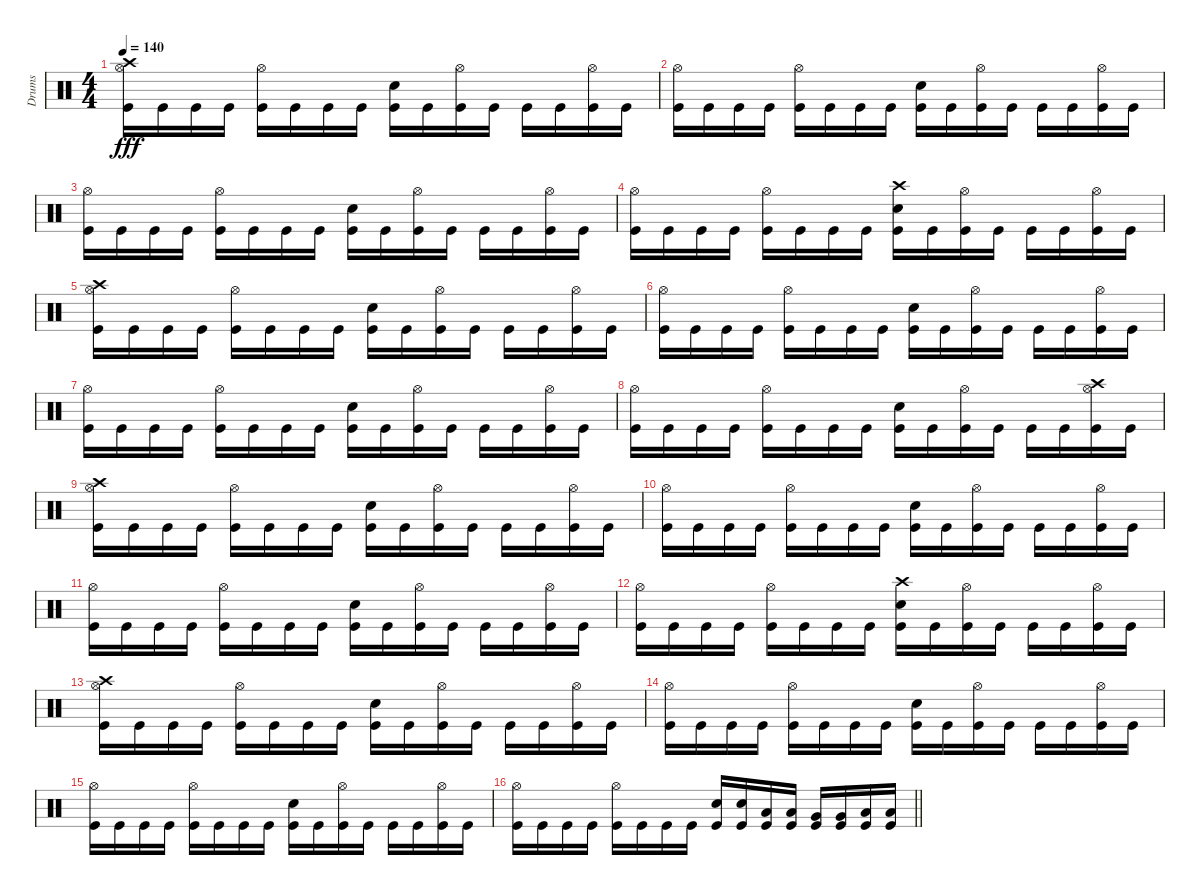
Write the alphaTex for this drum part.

\track ("Drums" "Drums") {instrument percussion}
\staff {score}
\articulation defaults
\ts (4 4)
\tempo 140
\clef neutral
\ks c
("Kick (hit)" "Hi-Hat (open)" "Crash high (hit)").16{dy fff} "Kick (hit)".16 "Kick (hit)".16 "Kick (hit)".16 ("Kick (hit)" "Hi-Hat (open)").16 "Kick (hit)".16 "Kick (hit)".16 "Kick (hit)".16 ("Kick (hit)" "Snare (hit) 2").16 "Kick (hit)".16 ("Kick (hit)" "Hi-Hat (open)").16 "Kick (hit)".16 "Kick (hit)".16 "Kick (hit)".16 ("Kick (hit)" "Hi-Hat (open)").16 "Kick (hit)".16 |
("Kick (hit)" "Hi-Hat (open)").16 "Kick (hit)".16 "Kick (hit)".16 "Kick (hit)".16 ("Kick (hit)" "Hi-Hat (open)").16 "Kick (hit)".16 "Kick (hit)".16 "Kick (hit)".16 ("Kick (hit)" "Snare (hit) 2").16 "Kick (hit)".16 ("Kick (hit)" "Hi-Hat (open)").16 "Kick (hit)".16 "Kick (hit)".16 "Kick (hit)".16 ("Kick (hit)" "Hi-Hat (open)").16 "Kick (hit)".16 |
("Kick (hit)" "Hi-Hat (open)").16 "Kick (hit)".16 "Kick (hit)".16 "Kick (hit)".16 ("Kick (hit)" "Hi-Hat (open)").16 "Kick (hit)".16 "Kick (hit)".16 "Kick (hit)".16 ("Kick (hit)" "Snare (hit) 2").16 "Kick (hit)".16 ("Kick (hit)" "Hi-Hat (open)").16 "Kick (hit)".16 "Kick (hit)".16 "Kick (hit)".16 ("Kick (hit)" "Hi-Hat (open)").16 "Kick (hit)".16 |
("Kick (hit)" "Hi-Hat (open)").16 "Kick (hit)".16 "Kick (hit)".16 "Kick (hit)".16 ("Kick (hit)" "Hi-Hat (open)").16 "Kick (hit)".16 "Kick (hit)".16 "Kick (hit)".16 ("Kick (hit)" "Snare (hit) 2" "Crash high (hit)").16 "Kick (hit)".16 ("Kick (hit)" "Hi-Hat (open)").16 "Kick (hit)".16 "Kick (hit)".16 "Kick (hit)".16 ("Kick (hit)" "Hi-Hat (open)").16 "Kick (hit)".16 |
("Kick (hit)" "Crash high (hit)" "Hi-Hat (open)").16 "Kick (hit)".16 "Kick (hit)".16 "Kick (hit)".16 ("Kick (hit)" "Hi-Hat (open)").16 "Kick (hit)".16 "Kick (hit)".16 "Kick (hit)".16 ("Kick (hit)" "Snare (hit) 2").16 "Kick (hit)".16 ("Kick (hit)" "Hi-Hat (open)").16 "Kick (hit)".16 "Kick (hit)".16 "Kick (hit)".16 ("Kick (hit)" "Hi-Hat (open)").16 "Kick (hit)".16 |
("Kick (hit)" "Hi-Hat (open)").16 "Kick (hit)".16 "Kick (hit)".16 "Kick (hit)".16 ("Kick (hit)" "Hi-Hat (open)").16 "Kick (hit)".16 "Kick (hit)".16 "Kick (hit)".16 ("Kick (hit)" "Snare (hit) 2").16 "Kick (hit)".16 ("Kick (hit)" "Hi-Hat (open)").16 "Kick (hit)".16 "Kick (hit)".16 "Kick (hit)".16 ("Kick (hit)" "Hi-Hat (open)").16 "Kick (hit)".16 |
("Kick (hit)" "Hi-Hat (open)").16 "Kick (hit)".16 "Kick (hit)".16 "Kick (hit)".16 ("Kick (hit)" "Hi-Hat (open)").16 "Kick (hit)".16 "Kick (hit)".16 "Kick (hit)".16 ("Kick (hit)" "Snare (hit) 2").16 "Kick (hit)".16 ("Kick (hit)" "Hi-Hat (open)").16 "Kick (hit)".16 "Kick (hit)".16 "Kick (hit)".16 ("Kick (hit)" "Hi-Hat (open)").16 "Kick (hit)".16 |
("Kick (hit)" "Hi-Hat (open)").16 "Kick (hit)".16 "Kick (hit)".16 "Kick (hit)".16 ("Kick (hit)" "Hi-Hat (open)").16 "Kick (hit)".16 "Kick (hit)".16 "Kick (hit)".16 ("Kick (hit)" "Snare (hit) 2").16 "Kick (hit)".16 ("Kick (hit)" "Hi-Hat (open)").16 "Kick (hit)".16 "Kick (hit)".16 "Kick (hit)".16 ("Kick (hit)" "Crash high (hit)" "Hi-Hat (open)").16 "Kick (hit)".16 |
("Kick (hit)" "Hi-Hat (open)" "Crash high (hit)").16 "Kick (hit)".16 "Kick (hit)".16 "Kick (hit)".16 ("Kick (hit)" "Hi-Hat (open)").16 "Kick (hit)".16 "Kick (hit)".16 "Kick (hit)".16 ("Kick (hit)" "Snare (hit) 2").16 "Kick (hit)".16 ("Kick (hit)" "Hi-Hat (open)").16 "Kick (hit)".16 "Kick (hit)".16 "Kick (hit)".16 ("Kick (hit)" "Hi-Hat (open)").16 "Kick (hit)".16 |
("Kick (hit)" "Hi-Hat (open)").16 "Kick (hit)".16 "Kick (hit)".16 "Kick (hit)".16 ("Kick (hit)" "Hi-Hat (open)").16 "Kick (hit)".16 "Kick (hit)".16 "Kick (hit)".16 ("Kick (hit)" "Snare (hit) 2").16 "Kick (hit)".16 ("Kick (hit)" "Hi-Hat (open)").16 "Kick (hit)".16 "Kick (hit)".16 "Kick (hit)".16 ("Kick (hit)" "Hi-Hat (open)").16 "Kick (hit)".16 |
("Kick (hit)" "Hi-Hat (open)").16 "Kick (hit)".16 "Kick (hit)".16 "Kick (hit)".16 ("Kick (hit)" "Hi-Hat (open)").16 "Kick (hit)".16 "Kick (hit)".16 "Kick (hit)".16 ("Kick (hit)" "Snare (hit) 2").16 "Kick (hit)".16 ("Kick (hit)" "Hi-Hat (open)").16 "Kick (hit)".16 "Kick (hit)".16 "Kick (hit)".16 ("Kick (hit)" "Hi-Hat (open)").16 "Kick (hit)".16 |
("Kick (hit)" "Hi-Hat (open)").16 "Kick (hit)".16 "Kick (hit)".16 "Kick (hit)".16 ("Kick (hit)" "Hi-Hat (open)").16 "Kick (hit)".16 "Kick (hit)".16 "Kick (hit)".16 ("Kick (hit)" "Snare (hit) 2" "Crash high (hit)").16 "Kick (hit)".16 ("Kick (hit)" "Hi-Hat (open)").16 "Kick (hit)".16 "Kick (hit)".16 "Kick (hit)".16 ("Kick (hit)" "Hi-Hat (open)").16 "Kick (hit)".16 |
("Kick (hit)" "Crash high (hit)" "Hi-Hat (open)").16 "Kick (hit)".16 "Kick (hit)".16 "Kick (hit)".16 ("Kick (hit)" "Hi-Hat (open)").16 "Kick (hit)".16 "Kick (hit)".16 "Kick (hit)".16 ("Kick (hit)" "Snare (hit) 2").16 "Kick (hit)".16 ("Kick (hit)" "Hi-Hat (open)").16 "Kick (hit)".16 "Kick (hit)".16 "Kick (hit)".16 ("Kick (hit)" "Hi-Hat (open)").16 "Kick (hit)".16 |
("Kick (hit)" "Hi-Hat (open)").16 "Kick (hit)".16 "Kick (hit)".16 "Kick (hit)".16 ("Kick (hit)" "Hi-Hat (open)").16 "Kick (hit)".16 "Kick (hit)".16 "Kick (hit)".16 ("Kick (hit)" "Snare (hit) 2").16 "Kick (hit)".16 ("Kick (hit)" "Hi-Hat (open)").16 "Kick (hit)".16 "Kick (hit)".16 "Kick (hit)".16 ("Kick (hit)" "Hi-Hat (open)").16 "Kick (hit)".16 |
("Kick (hit)" "Hi-Hat (open)").16 "Kick (hit)".16 "Kick (hit)".16 "Kick (hit)".16 ("Kick (hit)" "Hi-Hat (open)").16 "Kick (hit)".16 "Kick (hit)".16 "Kick (hit)".16 ("Kick (hit)" "Snare (hit) 2").16 "Kick (hit)".16 ("Kick (hit)" "Hi-Hat (open)").16 "Kick (hit)".16 "Kick (hit)".16 "Kick (hit)".16 ("Kick (hit)" "Hi-Hat (open)").16 "Kick (hit)".16 |
\barLineRight lightlight
("Kick (hit)" "Hi-Hat (open)").16 "Kick (hit)".16 "Kick (hit)".16 "Kick (hit)".16 ("Kick (hit)" "Hi-Hat (open)").16 "Kick (hit)".16 "Kick (hit)".16 "Kick (hit)".16 ("Kick (hit)" "Snare (hit) 2").16 ("Kick (hit)" "Snare (hit) 2").16 ("Kick (hit)" "Low Tom (hit)").16 ("Kick (hit)" "Low Tom (hit)").16 ("Kick (hit)" "Very Low Tom (hit)").16 ("Kick (hit)" "Very Low Tom (hit)").16 ("Kick (hit)" "Low Floor Tom (hit)").16 ("Kick (hit)" "Low Floor Tom (hit)").16
